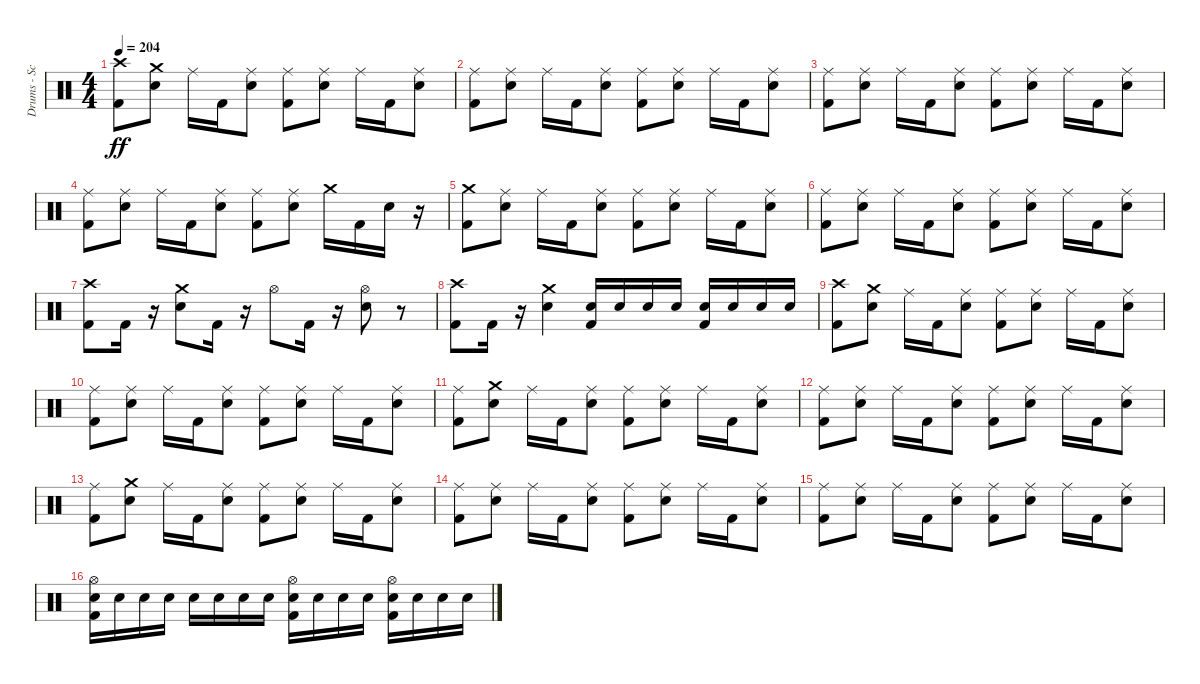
\track ("Drums - Scott" "Drums - Sc") {instrument percussion}
\staff {score}
\articulation defaults
\ts (4 4)
\tempo 204
\clef neutral
\ks c
("Kick (hit) 2" "Crash high (hit)").8{dy ff} ("Electric Snare (hit)" "Crash medium (hit)").8 "Ride (middle)".16 "Kick (hit) 2".16 ("Electric Snare (hit)" "Ride (middle)").8 ("Kick (hit) 2" "Ride (middle)").8 ("Electric Snare (hit)" "Ride (middle)").8 "Ride (middle)".16 "Kick (hit) 2".16 ("Electric Snare (hit)" "Ride (middle)").8 |
("Kick (hit) 2" "Ride (middle)").8 ("Electric Snare (hit)" "Ride (middle)").8 "Ride (middle)".16 "Kick (hit) 2".16 ("Electric Snare (hit)" "Ride (middle)").8 ("Kick (hit) 2" "Ride (middle)").8 ("Electric Snare (hit)" "Ride (middle)").8 "Ride (middle)".16 "Kick (hit) 2".16 ("Electric Snare (hit)" "Ride (middle)").8 |
("Kick (hit) 2" "Ride (middle)").8 ("Electric Snare (hit)" "Ride (middle)").8 "Ride (middle)".16 "Kick (hit) 2".16 ("Electric Snare (hit)" "Ride (middle)").8 ("Kick (hit) 2" "Ride (middle)").8 ("Electric Snare (hit)" "Ride (middle)").8 "Ride (middle)".16 "Kick (hit) 2".16 ("Electric Snare (hit)" "Ride (middle)").8 |
("Kick (hit) 2" "Ride (middle)").8 ("Electric Snare (hit)" "Ride (middle)").8 "Ride (middle)".16 "Kick (hit) 2".16 ("Electric Snare (hit)" "Ride (middle)").8 ("Kick (hit) 2" "Ride (middle)").8 ("Electric Snare (hit)" "Ride (middle)").8 "Crash medium (hit)".16 "Kick (hit) 2".16 "Electric Snare (hit)".16 r.16 |
("Crash medium (hit)" "Kick (hit) 2").8 ("Electric Snare (hit)" "Ride (middle)").8 "Ride (middle)".16 "Kick (hit) 2".16 ("Electric Snare (hit)" "Ride (middle)").8 ("Kick (hit) 2" "Ride (middle)").8 ("Electric Snare (hit)" "Ride (middle)").8 "Ride (middle)".16 "Kick (hit) 2".16 ("Electric Snare (hit)" "Ride (middle)").8 |
("Kick (hit) 2" "Ride (middle)").8 ("Electric Snare (hit)" "Ride (middle)").8 "Ride (middle)".16 "Kick (hit) 2".16 ("Electric Snare (hit)" "Ride (middle)").8 ("Kick (hit) 2" "Ride (middle)").8 ("Electric Snare (hit)" "Ride (middle)").8 "Ride (middle)".16 "Kick (hit) 2".16 ("Electric Snare (hit)" "Ride (middle)").8 |
("Kick (hit) 2" "Crash high (hit)").8 "Kick (hit) 2".16 r.16 ("Electric Snare (hit)" "Crash medium (hit)").8 "Kick (hit) 2".16 r.16 "Hi-Hat (open)".8 "Kick (hit) 2".16 r.16 ("Electric Snare (hit)" "Hi-Hat (open)").8 r.8 |
("Kick (hit) 2" "Crash high (hit)").8 "Kick (hit) 2".16 r.16 ("Electric Snare (hit)" "Crash medium (hit)").4 ("Kick (hit) 2" "Electric Snare (hit)").16 "Electric Snare (hit)".16 "Electric Snare (hit)".16 "Electric Snare (hit)".16 ("Kick (hit) 2" "Electric Snare (hit)").16 "Electric Snare (hit)".16 "Electric Snare (hit)".16 "Electric Snare (hit)".16 |
("Kick (hit) 2" "Crash high (hit)").8 ("Electric Snare (hit)" "Crash medium (hit)").8 "Ride (middle)".16 "Kick (hit) 2".16 ("Electric Snare (hit)" "Ride (middle)").8 ("Kick (hit) 2" "Ride (middle)").8 ("Electric Snare (hit)" "Ride (middle)").8 "Ride (middle)".16 "Kick (hit) 2".16 ("Electric Snare (hit)" "Ride (middle)").8 |
("Kick (hit) 2" "Ride (middle)").8 ("Electric Snare (hit)" "Ride (middle)").8 "Ride (middle)".16 "Kick (hit) 2".16 ("Electric Snare (hit)" "Ride (middle)").8 ("Kick (hit) 2" "Ride (middle)").8 ("Electric Snare (hit)" "Ride (middle)").8 "Ride (middle)".16 "Kick (hit) 2".16 ("Electric Snare (hit)" "Ride (middle)").8 |
("Kick (hit) 2" "Ride (middle)").8 ("Electric Snare (hit)" "Crash medium (hit)").8 "Ride (middle)".16 "Kick (hit) 2".16 ("Electric Snare (hit)" "Ride (middle)").8 ("Kick (hit) 2" "Ride (middle)").8 ("Electric Snare (hit)" "Ride (middle)").8 "Ride (middle)".16 "Kick (hit) 2".16 ("Electric Snare (hit)" "Ride (middle)").8 |
("Kick (hit) 2" "Ride (middle)").8 ("Electric Snare (hit)" "Ride (middle)").8 "Ride (middle)".16 "Kick (hit) 2".16 ("Electric Snare (hit)" "Ride (middle)").8 ("Kick (hit) 2" "Ride (middle)").8 ("Electric Snare (hit)" "Ride (middle)").8 "Ride (middle)".16 "Kick (hit) 2".16 ("Electric Snare (hit)" "Ride (middle)").8 |
("Kick (hit) 2" "Ride (middle)").8 ("Electric Snare (hit)" "Crash medium (hit)").8 "Ride (middle)".16 "Kick (hit) 2".16 ("Electric Snare (hit)" "Ride (middle)").8 ("Kick (hit) 2" "Ride (middle)").8 ("Electric Snare (hit)" "Ride (middle)").8 "Ride (middle)".16 "Kick (hit) 2".16 ("Electric Snare (hit)" "Ride (middle)").8 |
("Kick (hit) 2" "Ride (middle)").8 ("Electric Snare (hit)" "Ride (middle)").8 "Ride (middle)".16 "Kick (hit) 2".16 ("Electric Snare (hit)" "Ride (middle)").8 ("Kick (hit) 2" "Ride (middle)").8 ("Electric Snare (hit)" "Ride (middle)").8 "Ride (middle)".16 "Kick (hit) 2".16 ("Electric Snare (hit)" "Ride (middle)").8 |
("Kick (hit) 2" "Ride (middle)").8 ("Electric Snare (hit)" "Ride (middle)").8 "Ride (middle)".16 "Kick (hit) 2".16 ("Electric Snare (hit)" "Ride (middle)").8 ("Kick (hit) 2" "Ride (middle)").8 ("Electric Snare (hit)" "Ride (middle)").8 "Ride (middle)".16 "Kick (hit) 2".16 ("Electric Snare (hit)" "Ride (middle)").8 |
("Kick (hit) 2" "Electric Snare (hit)" "Hi-Hat (open)").16 "Electric Snare (hit)".16 "Electric Snare (hit)".16 "Electric Snare (hit)".16 "Electric Snare (hit)".16 "Electric Snare (hit)".16 "Electric Snare (hit)".16 "Electric Snare (hit)".16 ("Kick (hit) 2" "Electric Snare (hit)" "Hi-Hat (open)").16 "Electric Snare (hit)".16 "Electric Snare (hit)".16 "Electric Snare (hit)".16 ("Kick (hit) 2" "Electric Snare (hit)" "Hi-Hat (open)").16 "Electric Snare (hit)".16 "Electric Snare (hit)".16 "Electric Snare (hit)".16
